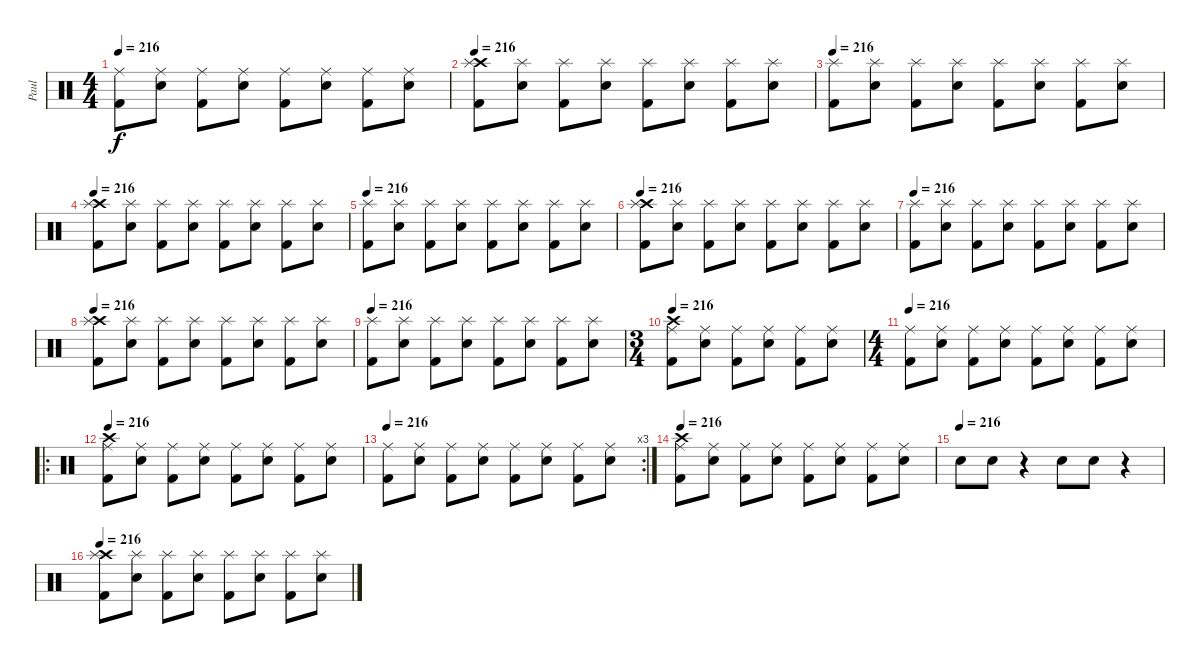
\track ("Paul" "Paul") {instrument percussion}
\staff {score}
\articulation defaults
\ts (4 4)
\tempo 216
\clef neutral
\ks c
("Ride (middle)" "Kick (hit) 2").8{dy f} ("Ride (middle)" "Electric Snare (hit)").8 ("Ride (middle)" "Kick (hit) 2").8 ("Ride (middle)" "Electric Snare (hit)").8 ("Ride (middle)" "Kick (hit) 2").8 ("Ride (middle)" "Electric Snare (hit)").8 ("Ride (middle)" "Kick (hit) 2").8 ("Ride (middle)" "Electric Snare (hit)").8 |
\tempo 216
("Crash high (hit)" "Splash (hit)" "Kick (hit) 2").8 ("Splash (hit)" "Electric Snare (hit)").8 ("Splash (hit)" "Kick (hit) 2").8 ("Splash (hit)" "Electric Snare (hit)").8 ("Splash (hit)" "Kick (hit) 2").8 ("Splash (hit)" "Electric Snare (hit)").8 ("Splash (hit)" "Kick (hit) 2").8 ("Splash (hit)" "Electric Snare (hit)").8 |
\tempo 216
("Splash (hit)" "Kick (hit) 2").8 ("Splash (hit)" "Electric Snare (hit)").8 ("Splash (hit)" "Kick (hit) 2").8 ("Splash (hit)" "Electric Snare (hit)").8 ("Splash (hit)" "Kick (hit) 2").8 ("Splash (hit)" "Electric Snare (hit)").8 ("Splash (hit)" "Kick (hit) 2").8 ("Splash (hit)" "Electric Snare (hit)").8 |
\tempo 216
("Crash high (hit)" "Splash (hit)" "Kick (hit) 2").8 ("Splash (hit)" "Electric Snare (hit)").8 ("Splash (hit)" "Kick (hit) 2").8 ("Splash (hit)" "Electric Snare (hit)").8 ("Splash (hit)" "Kick (hit) 2").8 ("Splash (hit)" "Electric Snare (hit)").8 ("Splash (hit)" "Kick (hit) 2").8 ("Splash (hit)" "Electric Snare (hit)").8 |
\tempo 216
("Splash (hit)" "Kick (hit) 2").8 ("Splash (hit)" "Electric Snare (hit)").8 ("Splash (hit)" "Kick (hit) 2").8 ("Splash (hit)" "Electric Snare (hit)").8 ("Splash (hit)" "Kick (hit) 2").8 ("Splash (hit)" "Electric Snare (hit)").8 ("Splash (hit)" "Kick (hit) 2").8 ("Splash (hit)" "Electric Snare (hit)").8 |
\tempo 216
("Crash high (hit)" "Splash (hit)" "Kick (hit) 2").8 ("Splash (hit)" "Electric Snare (hit)").8 ("Splash (hit)" "Kick (hit) 2").8 ("Splash (hit)" "Electric Snare (hit)").8 ("Splash (hit)" "Kick (hit) 2").8 ("Splash (hit)" "Electric Snare (hit)").8 ("Splash (hit)" "Kick (hit) 2").8 ("Splash (hit)" "Electric Snare (hit)").8 |
\tempo 216
("Splash (hit)" "Kick (hit) 2").8 ("Splash (hit)" "Electric Snare (hit)").8 ("Splash (hit)" "Kick (hit) 2").8 ("Splash (hit)" "Electric Snare (hit)").8 ("Splash (hit)" "Kick (hit) 2").8 ("Splash (hit)" "Electric Snare (hit)").8 ("Splash (hit)" "Kick (hit) 2").8 ("Splash (hit)" "Electric Snare (hit)").8 |
\tempo 216
("Crash high (hit)" "Splash (hit)" "Kick (hit) 2").8 ("Splash (hit)" "Electric Snare (hit)").8 ("Splash (hit)" "Kick (hit) 2").8 ("Splash (hit)" "Electric Snare (hit)").8 ("Splash (hit)" "Kick (hit) 2").8 ("Splash (hit)" "Electric Snare (hit)").8 ("Splash (hit)" "Kick (hit) 2").8 ("Splash (hit)" "Electric Snare (hit)").8 |
\tempo 216
("Splash (hit)" "Kick (hit) 2").8 ("Splash (hit)" "Electric Snare (hit)").8 ("Splash (hit)" "Kick (hit) 2").8 ("Splash (hit)" "Electric Snare (hit)").8 ("Splash (hit)" "Kick (hit) 2").8 ("Splash (hit)" "Electric Snare (hit)").8 ("Splash (hit)" "Kick (hit) 2").8 ("Splash (hit)" "Electric Snare (hit)").8 |
\ts (3 4)
\tempo 216
("Crash high (hit)" "Ride (middle)" "Kick (hit) 2").8 ("Ride (middle)" "Electric Snare (hit)").8 ("Ride (middle)" "Kick (hit) 2").8 ("Ride (middle)" "Electric Snare (hit)").8 ("Ride (middle)" "Kick (hit) 2").8 ("Ride (middle)" "Electric Snare (hit)").8 |
\ts (4 4)
\tempo 216
("Ride (middle)" "Kick (hit) 2").8 ("Ride (middle)" "Electric Snare (hit)").8 ("Ride (middle)" "Kick (hit) 2").8 ("Ride (middle)" "Electric Snare (hit)").8 ("Ride (middle)" "Kick (hit) 2").8 ("Ride (middle)" "Electric Snare (hit)").8 ("Ride (middle)" "Kick (hit) 2").8 ("Ride (middle)" "Electric Snare (hit)").8 |
\ro
\tempo 216
("Crash high (hit)" "Ride (middle)" "Kick (hit) 2").8 ("Ride (middle)" "Electric Snare (hit)").8 ("Ride (middle)" "Kick (hit) 2").8 ("Ride (middle)" "Electric Snare (hit)").8 ("Ride (middle)" "Kick (hit) 2").8 ("Ride (middle)" "Electric Snare (hit)").8 ("Ride (middle)" "Kick (hit) 2").8 ("Ride (middle)" "Electric Snare (hit)").8 |
\rc 3
\tempo 216
("Ride (middle)" "Kick (hit) 2").8 ("Ride (middle)" "Electric Snare (hit)").8 ("Ride (middle)" "Kick (hit) 2").8 ("Ride (middle)" "Electric Snare (hit)").8 ("Ride (middle)" "Kick (hit) 2").8 ("Ride (middle)" "Electric Snare (hit)").8 ("Ride (middle)" "Kick (hit) 2").8 ("Ride (middle)" "Electric Snare (hit)").8 |
\tempo 216
("Crash high (hit)" "Ride (middle)" "Kick (hit) 2").8 ("Ride (middle)" "Electric Snare (hit)").8 ("Ride (middle)" "Kick (hit) 2").8 ("Ride (middle)" "Electric Snare (hit)").8 ("Ride (middle)" "Kick (hit) 2").8 ("Ride (middle)" "Electric Snare (hit)").8 ("Ride (middle)" "Kick (hit) 2").8 ("Ride (middle)" "Electric Snare (hit)").8 |
\tempo (216)
"Electric Snare (hit)".8 "Electric Snare (hit)".8 r.4 "Electric Snare (hit)".8 "Electric Snare (hit)".8 r.4 |
\tempo 216
("Crash high (hit)" "Splash (hit)" "Kick (hit) 2").8 ("Splash (hit)" "Electric Snare (hit)").8 ("Splash (hit)" "Kick (hit) 2").8 ("Splash (hit)" "Electric Snare (hit)").8 ("Splash (hit)" "Kick (hit) 2").8 ("Splash (hit)" "Electric Snare (hit)").8 ("Splash (hit)" "Kick (hit) 2").8 ("Splash (hit)" "Electric Snare (hit)").8
